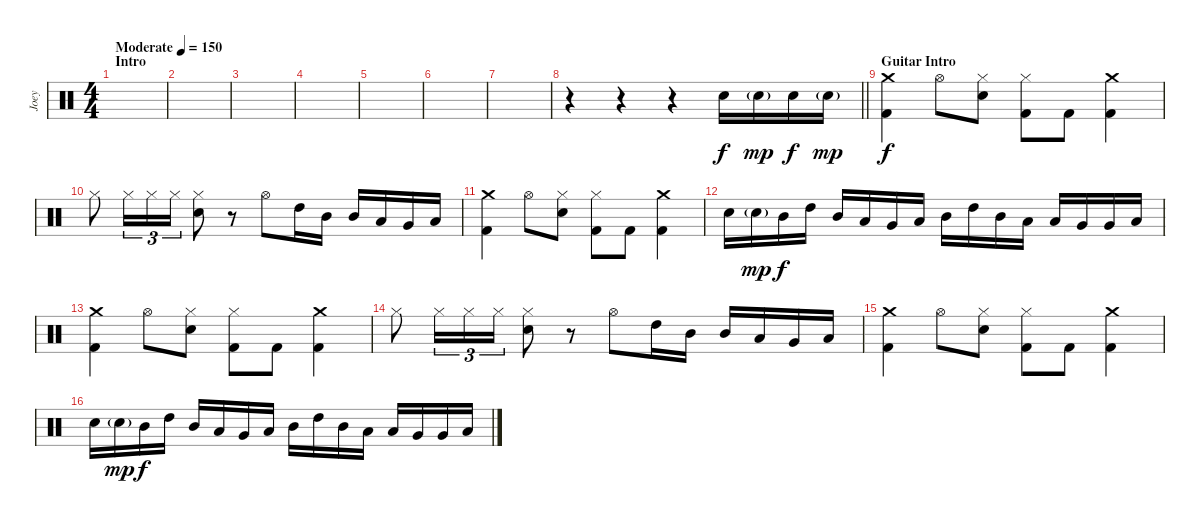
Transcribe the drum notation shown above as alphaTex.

\track ("Joey" "Joey") {instrument percussion}
\staff {score}
\articulation defaults
\ts (4 4)
\section ("" "Intro")
\tempo (150 "Moderate")
\clef neutral
\ks c
|
|
|
|
|
|
|
\barLineRight lightlight
r.4 r.4 r.4 "Electric Snare (hit)".16 "Electric Snare (hit)"{g}.16{dy mp} "Electric Snare (hit)".16{dy f} "Electric Snare (hit)"{g}.16{dy mp} |
\section ("" "Guitar Intro")
("Crash medium (hit)" "Kick (hit) 2").4{dy f} "Hi-Hat (open)".8 ("Hi-Hat (closed)" "Electric Snare (hit)").8 ("Hi-Hat (closed)" "Kick (hit) 2").8 "Kick (hit) 2".8 ("Crash medium (hit)" "Kick (hit) 2").4 |
"Hi-Hat (closed)".8 "Hi-Hat (closed)".16{tu (3 2)} "Hi-Hat (closed)".16{tu (3 2)} "Hi-Hat (closed)".16{tu (3 2)} ("Hi-Hat (closed)" "Electric Snare (hit)").8 r.8 "Hi-Hat (open)".8 "High Tom (hit)".16 "Mid Tom (hit)".16 "Mid Tom (hit)".16 "Low Tom (hit)".16 "Very Low Tom (hit)".16 "Low Floor Tom (hit)".16 |
("Crash medium (hit)" "Kick (hit) 2").4 "Hi-Hat (open)".8 ("Hi-Hat (closed)" "Electric Snare (hit)").8 ("Hi-Hat (closed)" "Kick (hit) 2").8 "Kick (hit) 2".8 ("Crash medium (hit)" "Kick (hit) 2").4 |
"Electric Snare (hit)".16 "Electric Snare (hit)"{g}.16{dy mp} "Mid Tom (hit)".16{dy f} "High Tom (hit)".16 "Mid Tom (hit)".16 "Low Tom (hit)".16 "Very Low Tom (hit)".16 "Low Floor Tom (hit)".16 "Mid Tom (hit)".16 "High Tom (hit)".16 "Mid Tom (hit)".16 "Low Tom (hit)".16 "Low Tom (hit)".16 "Very Low Tom (hit)".16 "Very Low Tom (hit)".16 "Low Floor Tom (hit)".16 |
("Crash medium (hit)" "Kick (hit) 2").4 "Hi-Hat (open)".8 ("Hi-Hat (closed)" "Electric Snare (hit)").8 ("Hi-Hat (closed)" "Kick (hit) 2").8 "Kick (hit) 2".8 ("Crash medium (hit)" "Kick (hit) 2").4 |
"Hi-Hat (closed)".8 "Hi-Hat (closed)".16{tu (3 2)} "Hi-Hat (closed)".16{tu (3 2)} "Hi-Hat (closed)".16{tu (3 2)} ("Hi-Hat (closed)" "Electric Snare (hit)").8 r.8 "Hi-Hat (open)".8 "High Tom (hit)".16 "Mid Tom (hit)".16 "Mid Tom (hit)".16 "Low Tom (hit)".16 "Very Low Tom (hit)".16 "Low Floor Tom (hit)".16 |
("Crash medium (hit)" "Kick (hit) 2").4 "Hi-Hat (open)".8 ("Hi-Hat (closed)" "Electric Snare (hit)").8 ("Hi-Hat (closed)" "Kick (hit) 2").8 "Kick (hit) 2".8 ("Crash medium (hit)" "Kick (hit) 2").4 |
"Electric Snare (hit)".16 "Electric Snare (hit)"{g}.16{dy mp} "Mid Tom (hit)".16{dy f} "High Tom (hit)".16 "Mid Tom (hit)".16 "Low Tom (hit)".16 "Very Low Tom (hit)".16 "Low Floor Tom (hit)".16 "Mid Tom (hit)".16 "High Tom (hit)".16 "Mid Tom (hit)".16 "Low Tom (hit)".16 "Low Tom (hit)".16 "Very Low Tom (hit)".16 "Very Low Tom (hit)".16 "Low Floor Tom (hit)".16
